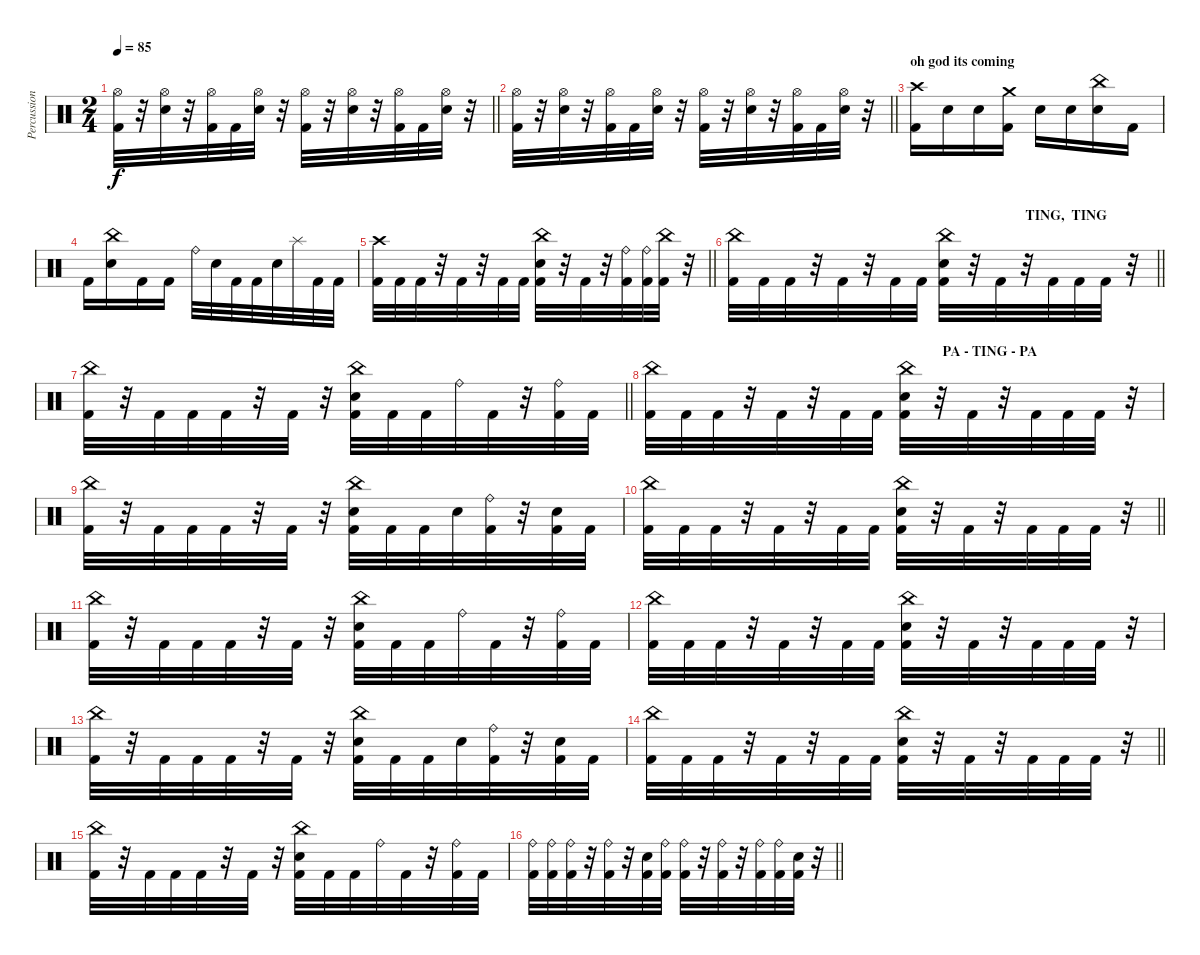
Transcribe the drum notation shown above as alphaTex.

\track ("Percussion" "Percussion") {instrument percussion}
\staff {score}
\articulation defaults
\ts (2 4)
\tempo 85
\clef neutral
\barLineRight lightlight
\ks c
("Hi-Hat (open)" "Kick (hit) 2").32{dy f} r.32 ("Hi-Hat (open)" "Snare (hit) 2").32 r.32 ("Hi-Hat (open)" "Kick (hit) 2").32 "Kick (hit) 2".32 ("Hi-Hat (open)" "Snare (hit) 2").32 r.32 ("Hi-Hat (open)" "Kick (hit) 2").32 r.32 ("Hi-Hat (open)" "Snare (hit) 2").32 r.32 ("Hi-Hat (open)" "Kick (hit) 2").32 "Kick (hit) 2".32 ("Hi-Hat (open)" "Snare (hit) 2").32 r.32 |
\barLineRight lightlight
("Hi-Hat (open)" "Kick (hit) 2").32 r.32 ("Hi-Hat (open)" "Snare (hit) 2").32 r.32 ("Hi-Hat (open)" "Kick (hit) 2").32 "Kick (hit) 2".32 ("Hi-Hat (open)" "Snare (hit) 2").32 r.32 ("Hi-Hat (open)" "Kick (hit) 2").32 r.32 ("Hi-Hat (open)" "Snare (hit) 2").32 r.32 ("Hi-Hat (open)" "Kick (hit) 2").32 "Kick (hit) 2".32 ("Hi-Hat (open)" "Snare (hit) 2").32 r.32 |
\section ("" "oh god its coming")
("Crash high (hit)" "Kick (hit) 2").16 "Snare (hit) 2".16 "Snare (hit) 2".16 ("Crash medium (hit)" "Kick (hit) 2").16 "Snare (hit) 2".16 "Snare (hit) 2".16 ("China (hit)" "Snare (hit) 2").16 "Kick (hit) 2".16 |
"Kick (hit) 2".16 ("China (hit)" "Snare (hit) 2").16 "Kick (hit) 2".16 "Kick (hit) 2".16 "Ride (bell)".32 "Snare (hit) 2".32 "Kick (hit) 2".32 "Kick (hit) 2".32 "Snare (hit) 2".32 "Splash (hit)".32 "Kick (hit) 2".32 "Kick (hit) 2".32 |
\barLineRight lightlight
("Kick (hit) 2" "Crash high (hit)").32 "Kick (hit) 2".32 "Kick (hit) 2".32 r.32 "Kick (hit) 2".32 r.32 "Kick (hit) 2".32 "Kick (hit) 2".32 ("Kick (hit) 2" "Snare (hit) 2" "China (hit)").32 r.32 "Kick (hit) 2".32 r.32 ("Kick (hit) 2" "Ride (bell)").32 ("Kick (hit) 2" "Ride (bell)").32 ("Kick (hit) 2" "China (hit)").32 r.32 |
\section ("" "                                                                                     TING,  TING")
\barLineRight lightlight
("Kick (hit) 2" "China (hit)").32 "Kick (hit) 2".32 "Kick (hit) 2".32 r.32 "Kick (hit) 2".32 r.32 "Kick (hit) 2".32 "Kick (hit) 2".32 ("Kick (hit) 2" "Snare (hit) 2" "China (hit)").32 r.32 "Kick (hit) 2".32 r.32 "Kick (hit) 2".32 "Kick (hit) 2".32 "Kick (hit) 2".32 r.32 |
\barLineRight lightlight
("Kick (hit) 2" "China (hit)").32 r.32 "Kick (hit) 2".32 "Kick (hit) 2".32 "Kick (hit) 2".32 r.32 "Kick (hit) 2".32 r.32 ("Kick (hit) 2" "Snare (hit) 2" "China (hit)").32 "Kick (hit) 2".32 "Kick (hit) 2".32 "Ride (bell)".32 "Kick (hit) 2".32 r.32 ("Kick (hit) 2" "Ride (bell)").32 "Kick (hit) 2".32 |
\section ("" "                                                                                     PA - TING - PA")
("Kick (hit) 2" "China (hit)").32 "Kick (hit) 2".32 "Kick (hit) 2".32 r.32 "Kick (hit) 2".32 r.32 "Kick (hit) 2".32 "Kick (hit) 2".32 ("Kick (hit) 2" "Snare (hit) 2" "China (hit)").32 r.32 "Kick (hit) 2".32 r.32 "Kick (hit) 2".32 "Kick (hit) 2".32 "Kick (hit) 2".32 r.32 |
("Kick (hit) 2" "China (hit)").32 r.32 "Kick (hit) 2".32 "Kick (hit) 2".32 "Kick (hit) 2".32 r.32 "Kick (hit) 2".32 r.32 ("Kick (hit) 2" "Snare (hit) 2" "China (hit)").32 "Kick (hit) 2".32 "Kick (hit) 2".32 "Snare (hit) 2".32 ("Kick (hit) 2" "Ride (bell)").32 r.32 ("Kick (hit) 2" "Snare (hit) 2").32 "Kick (hit) 2".32 |
\barLineRight lightlight
("Kick (hit) 2" "China (hit)").32 "Kick (hit) 2".32 "Kick (hit) 2".32 r.32 "Kick (hit) 2".32 r.32 "Kick (hit) 2".32 "Kick (hit) 2".32 ("Kick (hit) 2" "Snare (hit) 2" "China (hit)").32 r.32 "Kick (hit) 2".32 r.32 "Kick (hit) 2".32 "Kick (hit) 2".32 "Kick (hit) 2".32 r.32 |
("Kick (hit) 2" "China (hit)").32 r.32 "Kick (hit) 2".32 "Kick (hit) 2".32 "Kick (hit) 2".32 r.32 "Kick (hit) 2".32 r.32 ("Kick (hit) 2" "Snare (hit) 2" "China (hit)").32 "Kick (hit) 2".32 "Kick (hit) 2".32 "Ride (bell)".32 "Kick (hit) 2".32 r.32 ("Kick (hit) 2" "Ride (bell)").32 "Kick (hit) 2".32 |
("Kick (hit) 2" "China (hit)").32 "Kick (hit) 2".32 "Kick (hit) 2".32 r.32 "Kick (hit) 2".32 r.32 "Kick (hit) 2".32 "Kick (hit) 2".32 ("Kick (hit) 2" "Snare (hit) 2" "China (hit)").32 r.32 "Kick (hit) 2".32 r.32 "Kick (hit) 2".32 "Kick (hit) 2".32 "Kick (hit) 2".32 r.32 |
("Kick (hit) 2" "China (hit)").32 r.32 "Kick (hit) 2".32 "Kick (hit) 2".32 "Kick (hit) 2".32 r.32 "Kick (hit) 2".32 r.32 ("Kick (hit) 2" "Snare (hit) 2" "China (hit)").32 "Kick (hit) 2".32 "Kick (hit) 2".32 "Snare (hit) 2".32 ("Kick (hit) 2" "Ride (bell)").32 r.32 ("Kick (hit) 2" "Snare (hit) 2").32 "Kick (hit) 2".32 |
\barLineRight lightlight
("Kick (hit) 2" "China (hit)").32 "Kick (hit) 2".32 "Kick (hit) 2".32 r.32 "Kick (hit) 2".32 r.32 "Kick (hit) 2".32 "Kick (hit) 2".32 ("Kick (hit) 2" "Snare (hit) 2" "China (hit)").32 r.32 "Kick (hit) 2".32 r.32 "Kick (hit) 2".32 "Kick (hit) 2".32 "Kick (hit) 2".32 r.32 |
("Kick (hit) 2" "China (hit)").32 r.32 "Kick (hit) 2".32 "Kick (hit) 2".32 "Kick (hit) 2".32 r.32 "Kick (hit) 2".32 r.32 ("Kick (hit) 2" "Snare (hit) 2" "China (hit)").32 "Kick (hit) 2".32 "Kick (hit) 2".32 "Ride (bell)".32 "Kick (hit) 2".32 r.32 ("Kick (hit) 2" "Ride (bell)").32 "Kick (hit) 2".32 |
\barLineRight lightlight
("Kick (hit) 2" "Ride (bell)").32 ("Kick (hit) 2" "Ride (bell)").32 ("Kick (hit) 2" "Ride (bell)").32 r.32 ("Kick (hit) 2" "Ride (bell)").32 r.32 ("Kick (hit) 2" "Snare (hit) 2").32 ("Kick (hit) 2" "Ride (bell)").32 ("Kick (hit) 2" "Ride (bell)").32 r.32 ("Kick (hit) 2" "Ride (bell)").32 r.32 ("Kick (hit) 2" "Ride (bell)").32 ("Kick (hit) 2" "Ride (bell)").32 ("Kick (hit) 2" "Snare (hit) 2").32 r.32
